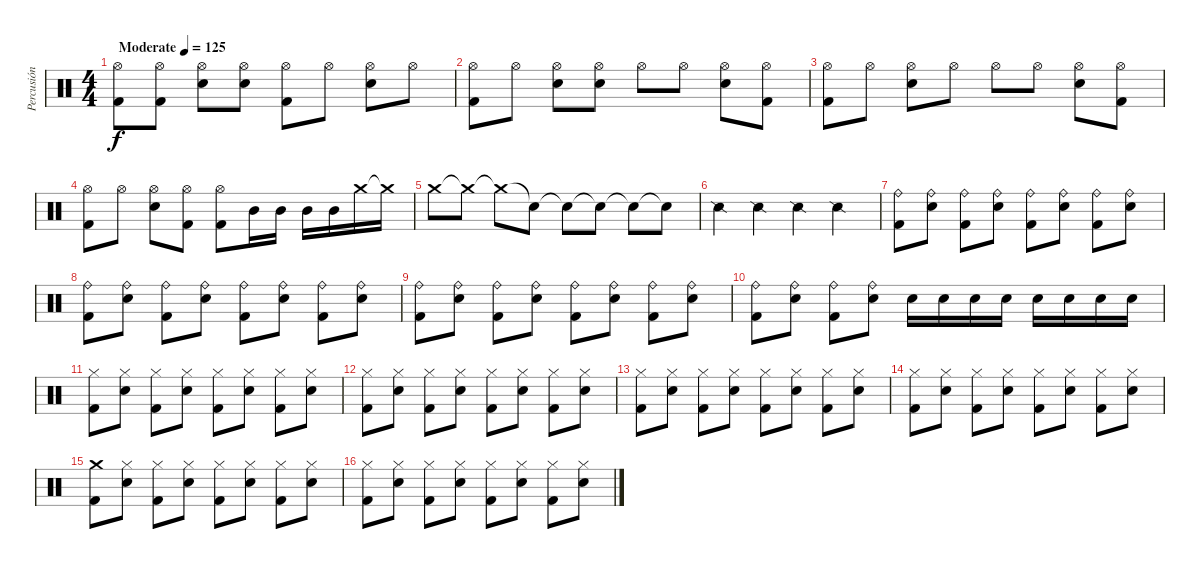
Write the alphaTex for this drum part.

\track ("Percusión" "Percusión") {instrument percussion}
\staff {score}
\articulation defaults
\ts (4 4)
\tempo (125 "Moderate")
\clef neutral
\ks c
("Hi-Hat (open)" "Kick (hit) 2").8{dy f} ("Hi-Hat (open)" "Kick (hit) 2").8 ("Hi-Hat (open)" "Snare (hit) 2").8 ("Hi-Hat (open)" "Snare (hit) 2").8 ("Hi-Hat (open)" "Kick (hit) 2").8 "Hi-Hat (open)".8 ("Hi-Hat (open)" "Snare (hit) 2").8 "Hi-Hat (open)".8 |
("Hi-Hat (open)" "Kick (hit) 2").8 "Hi-Hat (open)".8 ("Hi-Hat (open)" "Snare (hit) 2").8 ("Hi-Hat (open)" "Snare (hit) 2").8 "Hi-Hat (open)".8 "Hi-Hat (open)".8 ("Hi-Hat (open)" "Snare (hit) 2").8 ("Hi-Hat (open)" "Kick (hit) 2").8 |
("Hi-Hat (open)" "Kick (hit) 2").8 "Hi-Hat (open)".8 ("Hi-Hat (open)" "Snare (hit) 2").8 "Hi-Hat (open)".8 "Hi-Hat (open)".8 "Hi-Hat (open)".8 ("Hi-Hat (open)" "Snare (hit) 2").8 ("Hi-Hat (open)" "Kick (hit) 2").8 |
("Hi-Hat (open)" "Kick (hit) 2").8 "Hi-Hat (open)".8 ("Hi-Hat (open)" "Snare (hit) 2").8 ("Hi-Hat (open)" "Kick (hit) 2").8 ("Hi-Hat (open)" "Kick (hit) 2").8 "Mid Tom (hit)".16 "Mid Tom (hit)".16 "Mid Tom (hit)".16 "Mid Tom (hit)".16 "Crash medium (hit)".16 "Crash medium (hit)"{t}.16 |
"Crash medium (hit)".8 "Crash medium (hit)"{t}.8 "Crash medium (hit)"{t}.8 "Snare (hit)"{t}.8 "Snare (hit)"{t}.8 "Snare (hit)"{t}.8 "Snare (hit)"{t}.8 "Snare (hit)"{t}.8 |
"Snare (side stick) 2".4 "Snare (side stick) 2".4 "Snare (side stick) 2".4 "Snare (side stick) 2".4 |
("Ride (bell)" "Kick (hit) 2").8 ("Ride (bell)" "Snare (hit) 2").8 ("Ride (bell)" "Kick (hit) 2").8 ("Ride (bell)" "Snare (hit) 2").8 ("Ride (bell)" "Kick (hit) 2").8 ("Ride (bell)" "Snare (hit) 2").8 ("Ride (bell)" "Kick (hit) 2").8 ("Ride (bell)" "Snare (hit) 2").8 |
("Ride (bell)" "Kick (hit) 2").8 ("Ride (bell)" "Snare (hit) 2").8 ("Ride (bell)" "Kick (hit) 2").8 ("Ride (bell)" "Snare (hit) 2").8 ("Ride (bell)" "Kick (hit) 2").8 ("Ride (bell)" "Snare (hit) 2").8 ("Ride (bell)" "Kick (hit) 2").8 ("Ride (bell)" "Snare (hit) 2").8 |
("Ride (bell)" "Kick (hit) 2").8 ("Ride (bell)" "Snare (hit) 2").8 ("Ride (bell)" "Kick (hit) 2").8 ("Ride (bell)" "Snare (hit) 2").8 ("Ride (bell)" "Kick (hit) 2").8 ("Ride (bell)" "Snare (hit) 2").8 ("Ride (bell)" "Kick (hit) 2").8 ("Ride (bell)" "Snare (hit) 2").8 |
("Ride (bell)" "Kick (hit) 2").8 ("Ride (bell)" "Snare (hit) 2").8 ("Ride (bell)" "Kick (hit) 2").8 ("Ride (bell)" "Snare (hit) 2").8 "Snare (hit) 2".16 "Snare (hit) 2".16 "Snare (hit) 2".16 "Snare (hit) 2".16 "Snare (hit) 2".16 "Snare (hit) 2".16 "Snare (hit) 2".16 "Snare (hit) 2".16 |
("Hi-Hat (closed)" "Kick (hit) 2").8 ("Hi-Hat (closed)" "Snare (hit) 2").8 ("Hi-Hat (closed)" "Kick (hit) 2").8 ("Hi-Hat (closed)" "Snare (hit) 2").8 ("Hi-Hat (closed)" "Kick (hit) 2").8 ("Hi-Hat (closed)" "Snare (hit) 2").8 ("Hi-Hat (closed)" "Kick (hit) 2").8 ("Hi-Hat (closed)" "Snare (hit) 2").8 |
("Hi-Hat (closed)" "Kick (hit) 2").8 ("Hi-Hat (closed)" "Snare (hit) 2").8 ("Hi-Hat (closed)" "Kick (hit) 2").8 ("Hi-Hat (closed)" "Snare (hit) 2").8 ("Hi-Hat (closed)" "Kick (hit) 2").8 ("Hi-Hat (closed)" "Snare (hit) 2").8 ("Hi-Hat (closed)" "Kick (hit) 2").8 ("Hi-Hat (closed)" "Snare (hit) 2").8 |
("Hi-Hat (closed)" "Kick (hit) 2").8 ("Hi-Hat (closed)" "Snare (hit) 2").8 ("Hi-Hat (closed)" "Kick (hit) 2").8 ("Hi-Hat (closed)" "Snare (hit) 2").8 ("Hi-Hat (closed)" "Kick (hit) 2").8 ("Hi-Hat (closed)" "Snare (hit) 2").8 ("Hi-Hat (closed)" "Kick (hit) 2").8 ("Hi-Hat (closed)" "Snare (hit) 2").8 |
("Hi-Hat (closed)" "Kick (hit) 2").8 ("Hi-Hat (closed)" "Snare (hit) 2").8 ("Hi-Hat (closed)" "Kick (hit) 2").8 ("Hi-Hat (closed)" "Snare (hit) 2").8 ("Hi-Hat (closed)" "Kick (hit) 2").8 ("Hi-Hat (closed)" "Snare (hit) 2").8 ("Hi-Hat (closed)" "Kick (hit) 2").8 ("Hi-Hat (closed)" "Snare (hit) 2").8 |
("Crash medium (hit)" "Kick (hit) 2").8 ("Hi-Hat (closed)" "Snare (hit) 2").8 ("Hi-Hat (closed)" "Kick (hit) 2").8 ("Hi-Hat (closed)" "Snare (hit) 2").8 ("Hi-Hat (closed)" "Kick (hit) 2").8 ("Hi-Hat (closed)" "Snare (hit) 2").8 ("Hi-Hat (closed)" "Kick (hit) 2").8 ("Hi-Hat (closed)" "Snare (hit) 2").8 |
("Hi-Hat (closed)" "Kick (hit) 2").8 ("Hi-Hat (closed)" "Snare (hit) 2").8 ("Hi-Hat (closed)" "Kick (hit) 2").8 ("Hi-Hat (closed)" "Snare (hit) 2").8 ("Hi-Hat (closed)" "Kick (hit) 2").8 ("Hi-Hat (closed)" "Snare (hit) 2").8 ("Hi-Hat (closed)" "Kick (hit) 2").8 ("Hi-Hat (closed)" "Snare (hit) 2").8
